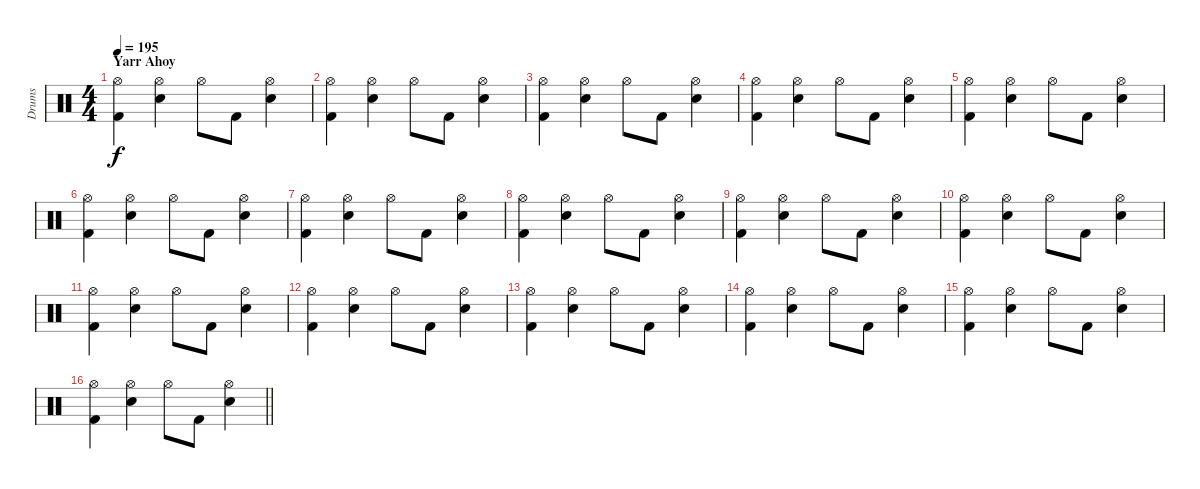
\track ("Drums" "Drums") {instrument percussion}
\staff {score}
\articulation defaults
\ts (4 4)
\section ("" "Yarr Ahoy")
\tempo 195
\clef neutral
\ks c
("Hi-Hat (open)" "Kick (hit) 2").4{dy f} ("Hi-Hat (open)" "Snare (hit) 2").4 "Hi-Hat (open)".8 "Kick (hit) 2".8 ("Hi-Hat (open)" "Snare (hit) 2").4 |
("Hi-Hat (open)" "Kick (hit) 2").4 ("Hi-Hat (open)" "Snare (hit) 2").4 "Hi-Hat (open)".8 "Kick (hit) 2".8 ("Hi-Hat (open)" "Snare (hit) 2").4 |
("Hi-Hat (open)" "Kick (hit) 2").4 ("Hi-Hat (open)" "Snare (hit) 2").4 "Hi-Hat (open)".8 "Kick (hit) 2".8 ("Hi-Hat (open)" "Snare (hit) 2").4 |
("Hi-Hat (open)" "Kick (hit) 2").4 ("Hi-Hat (open)" "Snare (hit) 2").4 "Hi-Hat (open)".8 "Kick (hit) 2".8 ("Hi-Hat (open)" "Snare (hit) 2").4 |
("Hi-Hat (open)" "Kick (hit) 2").4 ("Hi-Hat (open)" "Snare (hit) 2").4 "Hi-Hat (open)".8 "Kick (hit) 2".8 ("Hi-Hat (open)" "Snare (hit) 2").4 |
("Hi-Hat (open)" "Kick (hit) 2").4 ("Hi-Hat (open)" "Snare (hit) 2").4 "Hi-Hat (open)".8 "Kick (hit) 2".8 ("Hi-Hat (open)" "Snare (hit) 2").4 |
("Hi-Hat (open)" "Kick (hit) 2").4 ("Hi-Hat (open)" "Snare (hit) 2").4 "Hi-Hat (open)".8 "Kick (hit) 2".8 ("Hi-Hat (open)" "Snare (hit) 2").4 |
("Hi-Hat (open)" "Kick (hit) 2").4 ("Hi-Hat (open)" "Snare (hit) 2").4 "Hi-Hat (open)".8 "Kick (hit) 2".8 ("Hi-Hat (open)" "Snare (hit) 2").4 |
("Hi-Hat (open)" "Kick (hit) 2").4 ("Hi-Hat (open)" "Snare (hit) 2").4 "Hi-Hat (open)".8 "Kick (hit) 2".8 ("Hi-Hat (open)" "Snare (hit) 2").4 |
("Hi-Hat (open)" "Kick (hit) 2").4 ("Hi-Hat (open)" "Snare (hit) 2").4 "Hi-Hat (open)".8 "Kick (hit) 2".8 ("Hi-Hat (open)" "Snare (hit) 2").4 |
("Hi-Hat (open)" "Kick (hit) 2").4 ("Hi-Hat (open)" "Snare (hit) 2").4 "Hi-Hat (open)".8 "Kick (hit) 2".8 ("Hi-Hat (open)" "Snare (hit) 2").4 |
("Hi-Hat (open)" "Kick (hit) 2").4 ("Hi-Hat (open)" "Snare (hit) 2").4 "Hi-Hat (open)".8 "Kick (hit) 2".8 ("Hi-Hat (open)" "Snare (hit) 2").4 |
("Hi-Hat (open)" "Kick (hit) 2").4 ("Hi-Hat (open)" "Snare (hit) 2").4 "Hi-Hat (open)".8 "Kick (hit) 2".8 ("Hi-Hat (open)" "Snare (hit) 2").4 |
("Hi-Hat (open)" "Kick (hit) 2").4 ("Hi-Hat (open)" "Snare (hit) 2").4 "Hi-Hat (open)".8 "Kick (hit) 2".8 ("Hi-Hat (open)" "Snare (hit) 2").4 |
("Hi-Hat (open)" "Kick (hit) 2").4 ("Hi-Hat (open)" "Snare (hit) 2").4 "Hi-Hat (open)".8 "Kick (hit) 2".8 ("Hi-Hat (open)" "Snare (hit) 2").4 |
\barLineRight lightlight
("Hi-Hat (open)" "Kick (hit) 2").4 ("Hi-Hat (open)" "Snare (hit) 2").4 "Hi-Hat (open)".8 "Kick (hit) 2".8 ("Hi-Hat (open)" "Snare (hit) 2").4
